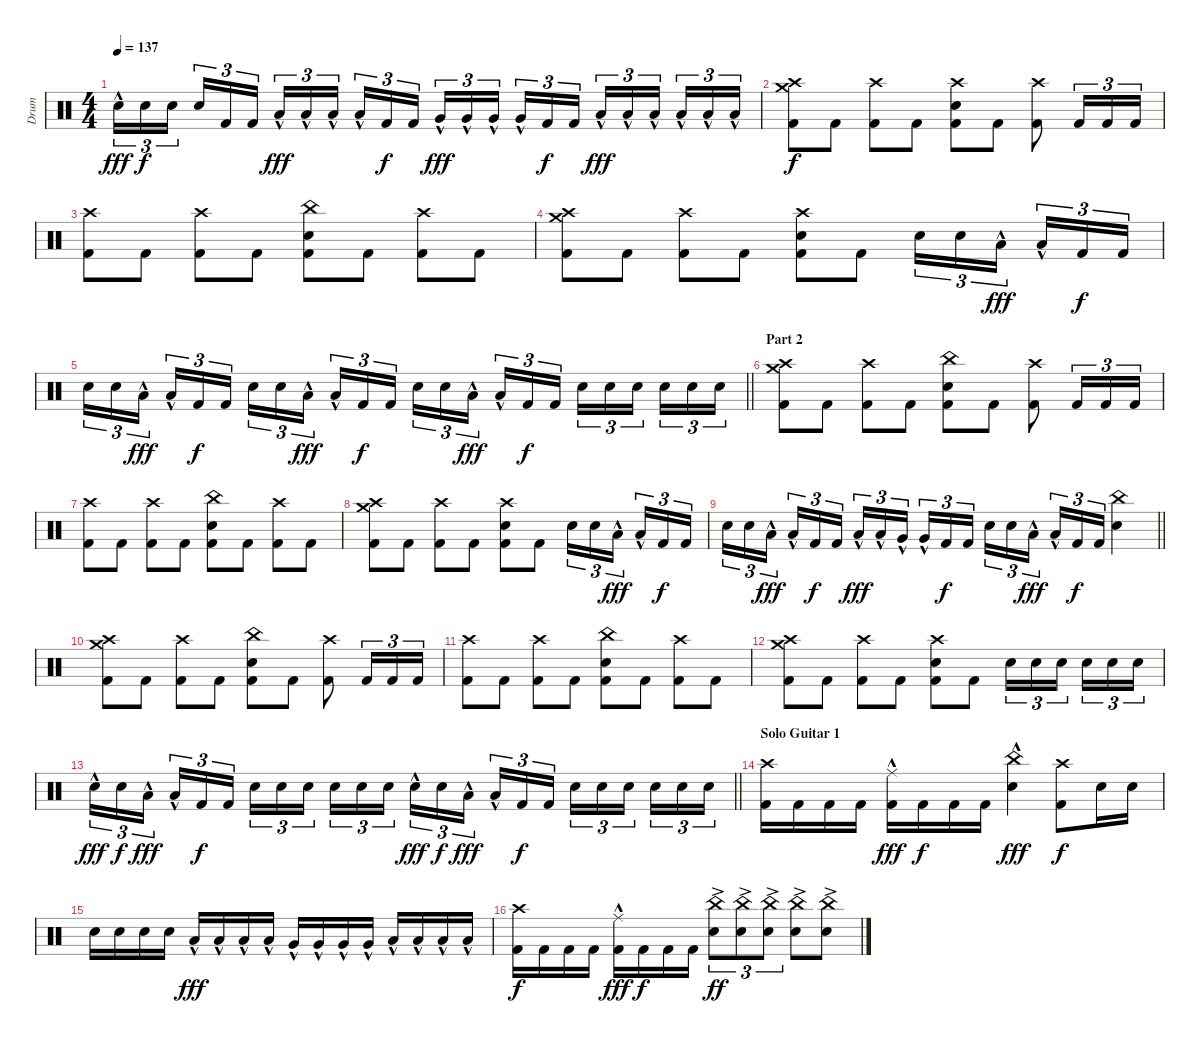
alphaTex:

\track ("Drum" "Drum") {instrument percussion}
\staff {score}
\articulation defaults
\ts (4 4)
\tempo 137
\clef neutral
\ks c "Electric Snare (hit)"{hac}.16{tu (3 2) dy fff} "Electric Snare (hit)".16{tu (3 2) dy f} "Electric Snare (hit)".16{tu (3 2) beam splitsecondary} "Electric Snare (hit)".16{tu (3 2)} "Kick (hit) 2".16{tu (3 2)} "Kick (hit) 2".16{tu (3 2)} "Low Tom (hit)"{hac}.16{tu (3 2) dy fff} "Low Tom (hit)"{hac}.16{tu (3 2)} "Low Tom (hit)"{hac}.16{tu (3 2) beam splitsecondary} "Low Tom (hit)"{hac}.16{tu (3 2)} "Kick (hit) 2".16{tu (3 2) dy f} "Kick (hit) 2".16{tu (3 2)} "Very Low Tom (hit)"{hac}.16{tu (3 2) dy fff} "Very Low Tom (hit)"{hac}.16{tu (3 2)} "Very Low Tom (hit)"{hac}.16{tu (3 2) beam splitsecondary} "Very Low Tom (hit)"{hac}.16{tu (3 2)} "Kick (hit) 2".16{tu (3 2) dy f} "Kick (hit) 2".16{tu (3 2)} "Low Floor Tom (hit)"{hac}.16{tu (3 2) dy fff} "Low Floor Tom (hit)"{hac}.16{tu (3 2)} "Low Floor Tom (hit)"{hac}.16{tu (3 2) beam splitsecondary} "Low Floor Tom (hit)"{hac}.16{tu (3 2)} "Low Floor Tom (hit)"{hac}.16{tu (3 2)} "Low Floor Tom (hit)"{hac}.16{tu (3 2)}
|
("Crash medium (hit)" "Crash high (hit)" "Kick (hit) 2").8{dy f} "Kick (hit) 2".8 ("Crash high (hit)" "Kick (hit) 2").8 "Kick (hit) 2".8 ("Crash high (hit)" "Electric Snare (hit)" "Kick (hit) 2").8 "Kick (hit) 2".8 ("Crash high (hit)" "Kick (hit) 2").8 "Kick (hit) 2".16{tu (3 2)} "Kick (hit) 2".16{tu (3 2)} "Kick (hit) 2".16{tu (3 2)} |
("Crash high (hit)" "Kick (hit) 2").8 "Kick (hit) 2".8 ("Crash high (hit)" "Kick (hit) 2").8 "Kick (hit) 2".8 ("China (hit)" "Electric Snare (hit)" "Kick (hit) 2").8 "Kick (hit) 2".8 ("Crash high (hit)" "Kick (hit) 2").8 "Kick (hit) 2".8 |
("Crash medium (hit)" "Crash high (hit)" "Kick (hit) 2").8 "Kick (hit) 2".8 ("Crash high (hit)" "Kick (hit) 2").8 "Kick (hit) 2".8 ("Crash high (hit)" "Electric Snare (hit)" "Kick (hit) 2").8 "Kick (hit) 2".8 "Electric Snare (hit)".16{tu (3 2)} "Electric Snare (hit)".16{tu (3 2)} "Low Tom (hit)"{hac}.16{tu (3 2) dy fff beam splitsecondary} "Low Tom (hit)"{hac}.16{tu (3 2)} "Kick (hit) 2".16{tu (3 2) dy f} "Kick (hit) 2".16{tu (3 2)} |
\barLineRight lightlight "Electric Snare (hit)".16{tu (3 2)} "Electric Snare (hit)".16{tu (3 2)} "Low Tom (hit)"{hac}.16{tu (3 2) dy fff beam splitsecondary} "Low Tom (hit)"{hac}.16{tu (3 2)} "Kick (hit) 2".16{tu (3 2) dy f} "Kick (hit) 2".16{tu (3 2)} "Electric Snare (hit)".16{tu (3 2)} "Electric Snare (hit)".16{tu (3 2)} "Low Tom (hit)"{hac}.16{tu (3 2) dy fff beam splitsecondary} "Low Tom (hit)"{hac}.16{tu (3 2)} "Kick (hit) 2".16{tu (3 2) dy f} "Kick (hit) 2".16{tu (3 2)} "Electric Snare (hit)".16{tu (3 2)} "Electric Snare (hit)".16{tu (3 2)} "Low Tom (hit)"{hac}.16{tu (3 2) dy fff beam splitsecondary} "Low Tom (hit)"{hac}.16{tu (3 2)} "Kick (hit) 2".16{tu (3 2) dy f} "Kick (hit) 2".16{tu (3 2)} "Electric Snare (hit)".16{tu (3 2)} "Electric Snare (hit)".16{tu (3 2)} "Electric Snare (hit)".16{tu (3 2) beam splitsecondary} "Electric Snare (hit)".16{tu (3 2)} "Electric Snare (hit)".16{tu (3 2)} "Electric Snare (hit)".16{tu (3 2)}
|
\section ("" "Part 2")
("Crash medium (hit)" "Crash high (hit)" "Kick (hit) 2").8 "Kick (hit) 2".8 ("Crash high (hit)" "Kick (hit) 2").8 "Kick (hit) 2".8 ("China (hit)" "Electric Snare (hit)" "Kick (hit) 2").8 "Kick (hit) 2".8 ("Crash high (hit)" "Kick (hit) 2").8 "Kick (hit) 2".16{tu (3 2)} "Kick (hit) 2".16{tu (3 2)} "Kick (hit) 2".16{tu (3 2)} |
("Crash high (hit)" "Kick (hit) 2").8 "Kick (hit) 2".8 ("Crash high (hit)" "Kick (hit) 2").8 "Kick (hit) 2".8 ("China (hit)" "Electric Snare (hit)" "Kick (hit) 2").8 "Kick (hit) 2".8 ("Crash high (hit)" "Kick (hit) 2").8 "Kick (hit) 2".8 |
("Crash medium (hit)" "Crash high (hit)" "Kick (hit) 2").8 "Kick (hit) 2".8 ("Crash high (hit)" "Kick (hit) 2").8 "Kick (hit) 2".8 ("Crash high (hit)" "Electric Snare (hit)" "Kick (hit) 2").8 "Kick (hit) 2".8 "Electric Snare (hit)".16{tu (3 2)} "Electric Snare (hit)".16{tu (3 2)} "Low Tom (hit)"{hac}.16{tu (3 2) dy fff beam splitsecondary} "Low Tom (hit)"{hac}.16{tu (3 2)} "Kick (hit) 2".16{tu (3 2) dy f} "Kick (hit) 2".16{tu (3 2)} |
\barLineRight lightlight "Electric Snare (hit)".16{tu (3 2)} "Electric Snare (hit)".16{tu (3 2)} "Low Tom (hit)"{hac}.16{tu (3 2) dy fff beam splitsecondary} "Low Tom (hit)"{hac}.16{tu (3 2)} "Kick (hit) 2".16{tu (3 2) dy f} "Kick (hit) 2".16{tu (3 2)} "Low Tom (hit)"{hac}.16{tu (3 2) dy fff} "Low Tom (hit)"{hac}.16{tu (3 2)} "Very Low Tom (hit)"{hac}.16{tu (3 2) beam splitsecondary} "Very Low Tom (hit)"{hac}.16{tu (3 2)} "Kick (hit) 2".16{tu (3 2) dy f} "Kick (hit) 2".16{tu (3 2)} "Electric Snare (hit)".16{tu (3 2)} "Electric Snare (hit)".16{tu (3 2)} "Low Tom (hit)"{hac}.16{tu (3 2) dy fff beam splitsecondary} "Low Tom (hit)"{hac}.16{tu (3 2)} "Kick (hit) 2".16{tu (3 2) dy f} "Kick (hit) 2".16{tu (3 2)}
("China (hit)" "Electric Snare (hit)").4 |
("Crash medium (hit)" "Crash high (hit)" "Kick (hit) 2").8 "Kick (hit) 2".8 ("Crash high (hit)" "Kick (hit) 2").8 "Kick (hit) 2".8 ("China (hit)" "Electric Snare (hit)" "Kick (hit) 2").8 "Kick (hit) 2".8 ("Crash high (hit)" "Kick (hit) 2").8 "Kick (hit) 2".16{tu (3 2)} "Kick (hit) 2".16{tu (3 2)} "Kick (hit) 2".16{tu (3 2)} |
("Crash high (hit)" "Kick (hit) 2").8 "Kick (hit) 2".8 ("Crash high (hit)" "Kick (hit) 2").8 "Kick (hit) 2".8 ("China (hit)" "Electric Snare (hit)" "Kick (hit) 2").8 "Kick (hit) 2".8 ("Crash high (hit)" "Kick (hit) 2").8 "Kick (hit) 2".8 |
("Crash medium (hit)" "Crash high (hit)" "Kick (hit) 2").8 "Kick (hit) 2".8 ("Crash high (hit)" "Kick (hit) 2").8 "Kick (hit) 2".8 ("Crash high (hit)" "Electric Snare (hit)" "Kick (hit) 2").8 "Kick (hit) 2".8 "Electric Snare (hit)".16{tu (3 2)} "Electric Snare (hit)".16{tu (3 2)} "Electric Snare (hit)".16{tu (3 2) beam splitsecondary} "Electric Snare (hit)".16{tu (3 2)} "Electric Snare (hit)".16{tu (3 2)} "Electric Snare (hit)".16{tu (3 2)} |
\barLineRight lightlight "Electric Snare (hit)"{hac}.16{tu (3 2) dy fff} "Electric Snare (hit)".16{tu (3 2) dy f} "Low Tom (hit)"{hac}.16{tu (3 2) dy fff beam splitsecondary} "Low Tom (hit)"{hac}.16{tu (3 2)} "Kick (hit) 2".16{tu (3 2) dy f} "Kick (hit) 2".16{tu (3 2)} "Electric Snare (hit)".16{tu (3 2)} "Electric Snare (hit)".16{tu (3 2)} "Electric Snare (hit)".16{tu (3 2) beam splitsecondary} "Electric Snare (hit)".16{tu (3 2)} "Electric Snare (hit)".16{tu (3 2)} "Electric Snare (hit)".16{tu (3 2)} "Electric Snare (hit)"{hac}.16{tu (3 2) dy fff} "Electric Snare (hit)".16{tu (3 2) dy f} "Low Tom (hit)"{hac}.16{tu (3 2) dy fff beam splitsecondary} "Low Tom (hit)"{hac}.16{tu (3 2)} "Kick (hit) 2".16{tu (3 2) dy f} "Kick (hit) 2".16{tu (3 2)} "Electric Snare (hit)".16{tu (3 2)} "Electric Snare (hit)".16{tu (3 2)} "Electric Snare (hit)".16{tu (3 2) beam splitsecondary} "Electric Snare (hit)".16{tu (3 2)} "Electric Snare (hit)".16{tu (3 2)} "Electric Snare (hit)".16{tu (3 2)}
|
\section ("" "Solo Guitar 1")
("Crash high (hit)" "Kick (hit) 2").16 "Kick (hit) 2".16 "Kick (hit) 2".16 "Kick (hit) 2".16 ("Ride (middle)"{hac} "Kick (hit) 2").16{dy fff} "Kick (hit) 2".16{dy f} "Kick (hit) 2".16 "Kick (hit) 2".16 ("China (hit)"{hac} "Electric Snare (hit)").4{dy fff} ("Crash high (hit)" "Kick (hit) 2").8{dy f} "Electric Snare (hit)".16 "Electric Snare (hit)".16 |
"Electric Snare (hit)".16 "Electric Snare (hit)".16 "Electric Snare (hit)".16 "Electric Snare (hit)".16 "Low Tom (hit)"{hac}.16{dy fff} "Low Tom (hit)"{hac}.16 "Low Tom (hit)"{hac}.16 "Low Tom (hit)"{hac}.16 "Very Low Tom (hit)"{hac}.16 "Very Low Tom (hit)"{hac}.16 "Very Low Tom (hit)"{hac}.16 "Very Low Tom (hit)"{hac}.16 "Low Floor Tom (hit)"{hac}.16 "Low Floor Tom (hit)"{hac}.16 "Low Floor Tom (hit)"{hac}.16 "Low Floor Tom (hit)"{hac}.16 |
("Crash high (hit)" "Kick (hit) 2").16{dy f} "Kick (hit) 2".16 "Kick (hit) 2".16 "Kick (hit) 2".16 ("Ride (middle)"{hac} "Kick (hit) 2").16{dy fff} "Kick (hit) 2".16{dy f} "Kick (hit) 2".16 "Kick (hit) 2".16 ("China (hit)"{ac} "Electric Snare (hit)").8{tu (3 2) dy ff} ("China (hit)"{ac} "Electric Snare (hit)").8{tu (3 2)} ("China (hit)"{ac} "Electric Snare (hit)").8{tu (3 2)} ("China (hit)"{ac} "Electric Snare (hit)").8 ("China (hit)"{ac} "Electric Snare (hit)").8
